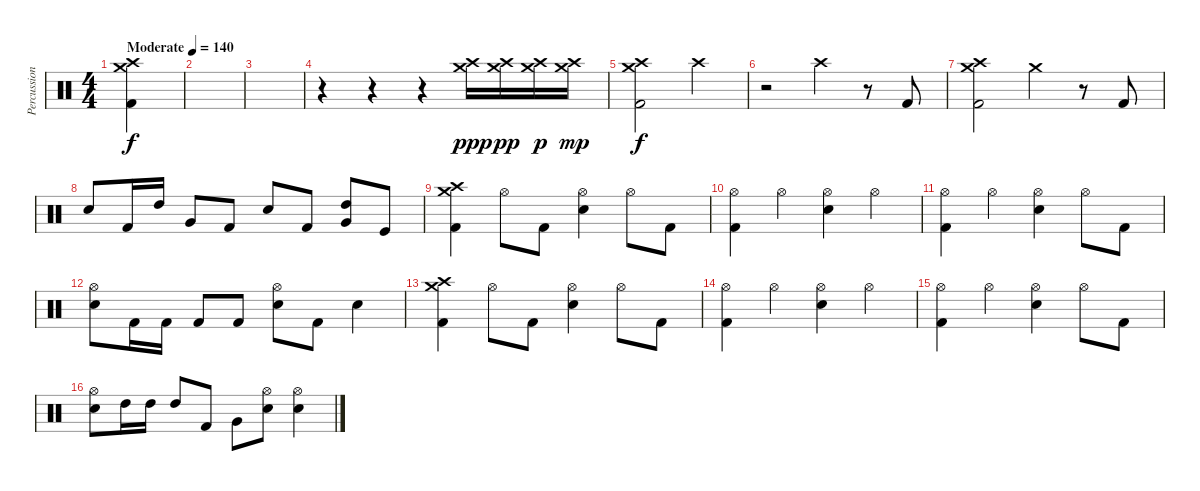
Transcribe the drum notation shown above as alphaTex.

\track ("Percussion" "Percussion") {instrument percussion}
\staff {score}
\articulation defaults
\ts (4 4)
\tempo (140 "Moderate")
\clef neutral
\ks c
("Crash medium (hit)" "Crash high (hit)" "Kick (hit) 2").4{dy f} |
|
|
r.4 r.4 r.4 ("Crash medium (hit)" "Crash high (hit)").16{dy ppp} ("Crash medium (hit)" "Crash high (hit)").16{dy pp} ("Crash medium (hit)" "Crash high (hit)").16{dy p} ("Crash medium (hit)" "Crash high (hit)").16{dy mp} |
("Crash medium (hit)" "Crash high (hit)" "Kick (hit) 2").2{dy f} "Crash high (hit)".4 |
r.2 "Crash high (hit)".4 r.8 "Kick (hit) 2".8 |
("Crash medium (hit)" "Crash high (hit)" "Kick (hit) 2").2 "Crash medium (hit)".4 r.8 "Kick (hit) 2".8 |
"Electric Snare (hit)".8 "Kick (hit) 2".16 "High Tom (hit)".16 "Very Low Tom (hit)".8 "Kick (hit) 2".8 "Electric Snare (hit)".8 "Kick (hit) 2".8 ("High Tom (hit)" "Very Low Tom (hit)").8 "Kick (hit)".8 |
("Crash medium (hit)" "Crash high (hit)" "Kick (hit) 2").4 "Hi-Hat (open)".8 "Kick (hit) 2".8 ("Hi-Hat (open)" "Electric Snare (hit)").4 "Hi-Hat (open)".8 "Kick (hit) 2".8 |
("Hi-Hat (open)" "Kick (hit) 2").4 "Hi-Hat (open)".4 ("Hi-Hat (open)" "Electric Snare (hit)").4 "Hi-Hat (open)".4 |
("Hi-Hat (open)" "Kick (hit) 2").4 "Hi-Hat (open)".4 ("Hi-Hat (open)" "Electric Snare (hit)").4 "Hi-Hat (open)".8 "Kick (hit) 2".8 |
("Hi-Hat (open)" "Electric Snare (hit)").8 "Kick (hit) 2".16 "Kick (hit) 2".16 "Kick (hit) 2".8 "Kick (hit) 2".8 ("Hi-Hat (open)" "Electric Snare (hit)").8 "Kick (hit) 2".8 "Electric Snare (hit)".4 |
("Crash medium (hit)" "Crash high (hit)" "Kick (hit) 2").4 "Hi-Hat (open)".8 "Kick (hit) 2".8 ("Hi-Hat (open)" "Electric Snare (hit)").4 "Hi-Hat (open)".8 "Kick (hit) 2".8 |
("Hi-Hat (open)" "Kick (hit) 2").4 "Hi-Hat (open)".4 ("Hi-Hat (open)" "Electric Snare (hit)").4 "Hi-Hat (open)".4 |
("Hi-Hat (open)" "Kick (hit) 2").4 "Hi-Hat (open)".4 ("Hi-Hat (open)" "Electric Snare (hit)").4 "Hi-Hat (open)".8 "Kick (hit) 2".8 |
("Hi-Hat (open)" "Electric Snare (hit)").8 "High Tom (hit)".16 "High Tom (hit)".16 "High Tom (hit)".8 "Kick (hit) 2".8 "Very Low Tom (hit)".8 ("Hi-Hat (open)" "Electric Snare (hit)").8 ("Hi-Hat (open)" "Electric Snare (hit)").4
